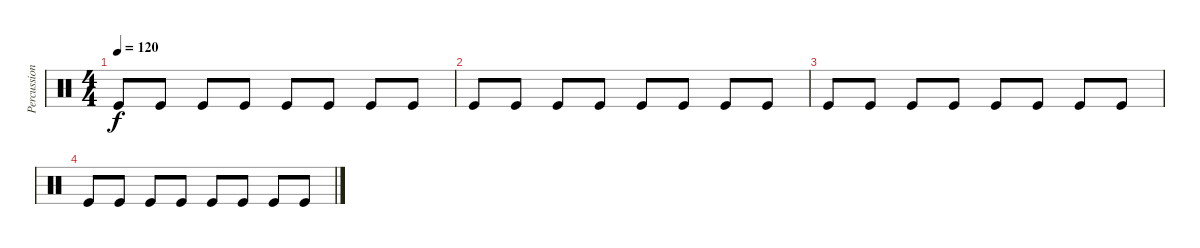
\track ("Percussion" "Percussion") {instrument percussion}
\staff {score}
\articulation defaults
\ts (4 4)
\tempo 120
\clef neutral
\ks c "Kick (hit)".8{dy f} "Kick (hit)".8 "Kick (hit)".8 "Kick (hit)".8 "Kick (hit)".8 "Kick (hit)".8 "Kick (hit)".8 "Kick (hit)".8
|
"Kick (hit)".8 "Kick (hit)".8 "Kick (hit)".8 "Kick (hit)".8 "Kick (hit)".8 "Kick (hit)".8 "Kick (hit)".8 "Kick (hit)".8 |
"Kick (hit)".8 "Kick (hit)".8 "Kick (hit)".8 "Kick (hit)".8 "Kick (hit)".8 "Kick (hit)".8 "Kick (hit)".8 "Kick (hit)".8 |
"Kick (hit)".8 "Kick (hit)".8 "Kick (hit)".8 "Kick (hit)".8 "Kick (hit)".8 "Kick (hit)".8 "Kick (hit)".8 "Kick (hit)".8
